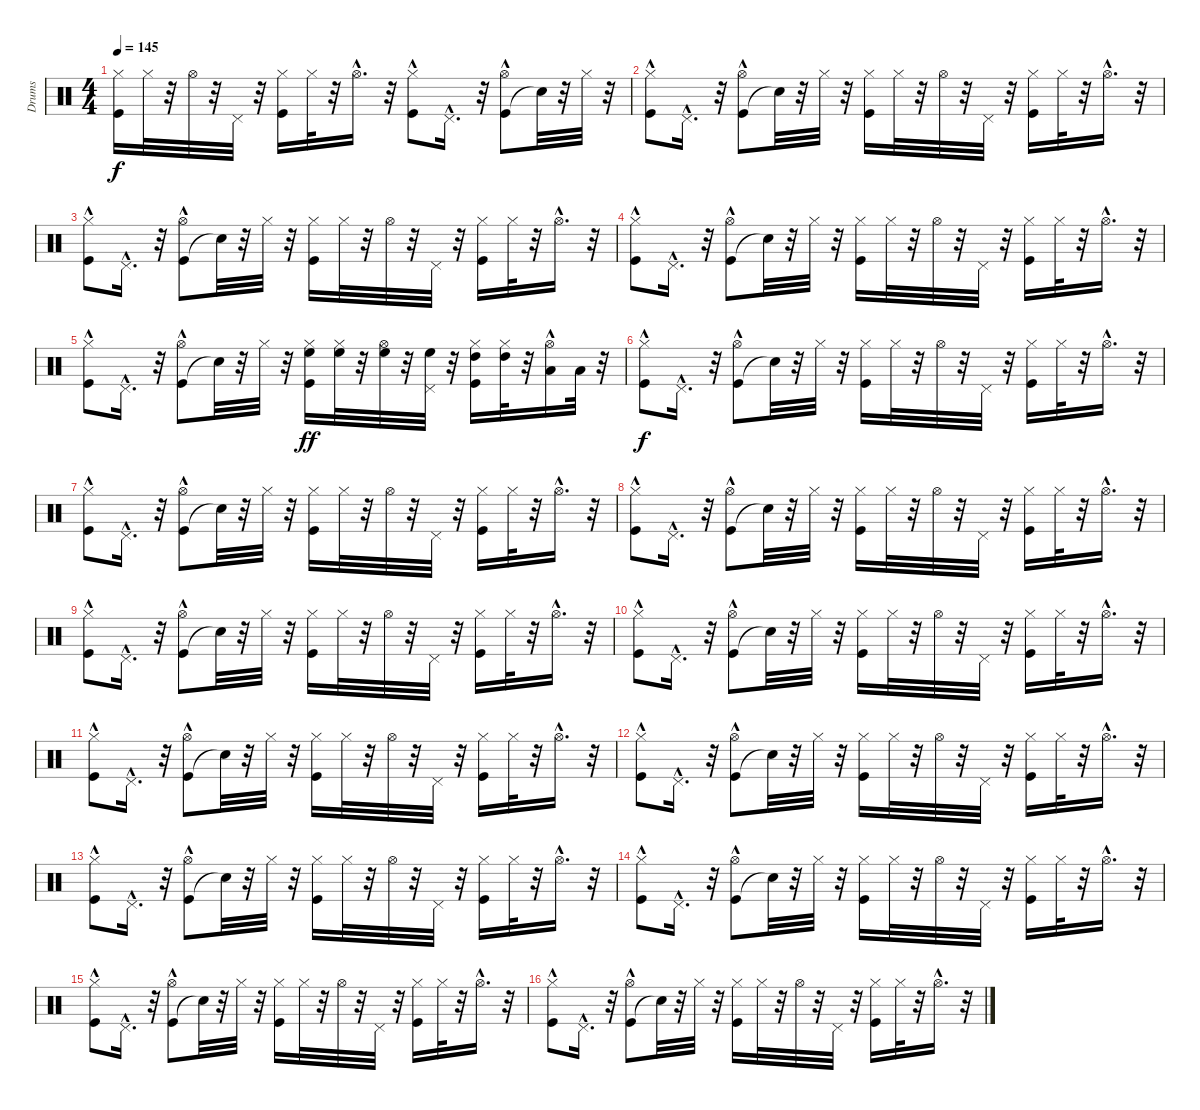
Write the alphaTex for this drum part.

\track ("Drums" "Drums") {instrument percussion}
\staff {score}
\articulation defaults
\ts (4 4)
\tempo 145
\clef neutral
\ks c
("Kick (hit)" "Hi-Hat (closed)").16{dy f} "Hi-Hat (closed)".32 r.32 "Hi-Hat (open)".32 r.32 "Pedal Hi-Hat (hit)".32 r.32 ("Kick (hit)" "Hi-Hat (closed)").16 "Hi-Hat (closed)".32 r.32 "Hi-Hat (open)"{hac}.16{d} r.32 ("Kick (hit)" "Hi-Hat (closed)"{hac}).8 "Pedal Hi-Hat (hit)"{hac}.16{d} r.32 ("Kick (hit)" "Hi-Hat (open)"{hac}).8 "Snare (hit)"{t}.32 r.32 "Hi-Hat (closed)".32 r.32 |
("Kick (hit)" "Hi-Hat (closed)"{hac}).8 "Pedal Hi-Hat (hit)"{hac}.16{d} r.32 ("Kick (hit)" "Hi-Hat (open)"{hac}).8 "Snare (hit)"{t}.32 r.32 "Hi-Hat (closed)".32 r.32 ("Kick (hit)" "Hi-Hat (closed)").16 "Hi-Hat (closed)".32 r.32 "Hi-Hat (open)".32 r.32 "Pedal Hi-Hat (hit)".32 r.32 ("Kick (hit)" "Hi-Hat (closed)").16 "Hi-Hat (closed)".32 r.32 "Hi-Hat (open)"{hac}.16{d} r.32 |
("Kick (hit)" "Hi-Hat (closed)"{hac}).8 "Pedal Hi-Hat (hit)"{hac}.16{d} r.32 ("Kick (hit)" "Hi-Hat (open)"{hac}).8 "Snare (hit)"{t}.32 r.32 "Hi-Hat (closed)".32 r.32 ("Kick (hit)" "Hi-Hat (closed)").16 "Hi-Hat (closed)".32 r.32 "Hi-Hat (open)".32 r.32 "Pedal Hi-Hat (hit)".32 r.32 ("Kick (hit)" "Hi-Hat (closed)").16 "Hi-Hat (closed)".32 r.32 "Hi-Hat (open)"{hac}.16{d} r.32 |
("Kick (hit)" "Hi-Hat (closed)"{hac}).8 "Pedal Hi-Hat (hit)"{hac}.16{d} r.32 ("Kick (hit)" "Hi-Hat (open)"{hac}).8 "Snare (hit)"{t}.32 r.32 "Hi-Hat (closed)".32 r.32 ("Kick (hit)" "Hi-Hat (closed)").16 "Hi-Hat (closed)".32 r.32 "Hi-Hat (open)".32 r.32 "Pedal Hi-Hat (hit)".32 r.32 ("Kick (hit)" "Hi-Hat (closed)").16 "Hi-Hat (closed)".32 r.32 "Hi-Hat (open)"{hac}.16{d} r.32 |
("Kick (hit)" "Hi-Hat (closed)"{hac}).8 "Pedal Hi-Hat (hit)"{hac}.16{d} r.32 ("Kick (hit)" "Hi-Hat (open)"{hac}).8 "Snare (hit)"{t}.32 r.32 "Hi-Hat (closed)".32 r.32 ("High Floor Tom (hit)" "Kick (hit)" "Hi-Hat (closed)").16{dy ff} ("High Floor Tom (hit)" "Hi-Hat (closed)").32 r.32 ("High Floor Tom (hit)" "Hi-Hat (open)").32 r.32 ("High Floor Tom (hit)" "Pedal Hi-Hat (hit)").32 r.32 ("High Tom (hit)" "Kick (hit)" "Hi-Hat (closed)").16 ("High Tom (hit)" "Hi-Hat (closed)").32 r.32 ("Low Tom (hit)" "Hi-Hat (open)"{hac}).16 "Low Tom (hit)".32 r.32 |
("Kick (hit)" "Hi-Hat (closed)"{hac}).8{dy f} "Pedal Hi-Hat (hit)"{hac}.16{d} r.32 ("Kick (hit)" "Hi-Hat (open)"{hac}).8 "Snare (hit)"{t}.32 r.32 "Hi-Hat (closed)".32 r.32 ("Kick (hit)" "Hi-Hat (closed)").16 "Hi-Hat (closed)".32 r.32 "Hi-Hat (open)".32 r.32 "Pedal Hi-Hat (hit)".32 r.32 ("Kick (hit)" "Hi-Hat (closed)").16 "Hi-Hat (closed)".32 r.32 "Hi-Hat (open)"{hac}.16{d} r.32 |
("Kick (hit)" "Hi-Hat (closed)"{hac}).8 "Pedal Hi-Hat (hit)"{hac}.16{d} r.32 ("Kick (hit)" "Hi-Hat (open)"{hac}).8 "Snare (hit)"{t}.32 r.32 "Hi-Hat (closed)".32 r.32 ("Kick (hit)" "Hi-Hat (closed)").16 "Hi-Hat (closed)".32 r.32 "Hi-Hat (open)".32 r.32 "Pedal Hi-Hat (hit)".32 r.32 ("Kick (hit)" "Hi-Hat (closed)").16 "Hi-Hat (closed)".32 r.32 "Hi-Hat (open)"{hac}.16{d} r.32 |
("Kick (hit)" "Hi-Hat (closed)"{hac}).8 "Pedal Hi-Hat (hit)"{hac}.16{d} r.32 ("Kick (hit)" "Hi-Hat (open)"{hac}).8 "Snare (hit)"{t}.32 r.32 "Hi-Hat (closed)".32 r.32 ("Kick (hit)" "Hi-Hat (closed)").16 "Hi-Hat (closed)".32 r.32 "Hi-Hat (open)".32 r.32 "Pedal Hi-Hat (hit)".32 r.32 ("Kick (hit)" "Hi-Hat (closed)").16 "Hi-Hat (closed)".32 r.32 "Hi-Hat (open)"{hac}.16{d} r.32 |
("Kick (hit)" "Hi-Hat (closed)"{hac}).8 "Pedal Hi-Hat (hit)"{hac}.16{d} r.32 ("Kick (hit)" "Hi-Hat (open)"{hac}).8 "Snare (hit)"{t}.32 r.32 "Hi-Hat (closed)".32 r.32 ("Kick (hit)" "Hi-Hat (closed)").16 "Hi-Hat (closed)".32 r.32 "Hi-Hat (open)".32 r.32 "Pedal Hi-Hat (hit)".32 r.32 ("Kick (hit)" "Hi-Hat (closed)").16 "Hi-Hat (closed)".32 r.32 "Hi-Hat (open)"{hac}.16{d} r.32 |
("Kick (hit)" "Hi-Hat (closed)"{hac}).8 "Pedal Hi-Hat (hit)"{hac}.16{d} r.32 ("Kick (hit)" "Hi-Hat (open)"{hac}).8 "Snare (hit)"{t}.32 r.32 "Hi-Hat (closed)".32 r.32 ("Kick (hit)" "Hi-Hat (closed)").16 "Hi-Hat (closed)".32 r.32 "Hi-Hat (open)".32 r.32 "Pedal Hi-Hat (hit)".32 r.32 ("Kick (hit)" "Hi-Hat (closed)").16 "Hi-Hat (closed)".32 r.32 "Hi-Hat (open)"{hac}.16{d} r.32 |
("Kick (hit)" "Hi-Hat (closed)"{hac}).8 "Pedal Hi-Hat (hit)"{hac}.16{d} r.32 ("Kick (hit)" "Hi-Hat (open)"{hac}).8 "Snare (hit)"{t}.32 r.32 "Hi-Hat (closed)".32 r.32 ("Kick (hit)" "Hi-Hat (closed)").16 "Hi-Hat (closed)".32 r.32 "Hi-Hat (open)".32 r.32 "Pedal Hi-Hat (hit)".32 r.32 ("Kick (hit)" "Hi-Hat (closed)").16 "Hi-Hat (closed)".32 r.32 "Hi-Hat (open)"{hac}.16{d} r.32 |
("Kick (hit)" "Hi-Hat (closed)"{hac}).8 "Pedal Hi-Hat (hit)"{hac}.16{d} r.32 ("Kick (hit)" "Hi-Hat (open)"{hac}).8 "Snare (hit)"{t}.32 r.32 "Hi-Hat (closed)".32 r.32 ("Kick (hit)" "Hi-Hat (closed)").16 "Hi-Hat (closed)".32 r.32 "Hi-Hat (open)".32 r.32 "Pedal Hi-Hat (hit)".32 r.32 ("Kick (hit)" "Hi-Hat (closed)").16 "Hi-Hat (closed)".32 r.32 "Hi-Hat (open)"{hac}.16{d} r.32 |
("Kick (hit)" "Hi-Hat (closed)"{hac}).8 "Pedal Hi-Hat (hit)"{hac}.16{d} r.32 ("Kick (hit)" "Hi-Hat (open)"{hac}).8 "Snare (hit)"{t}.32 r.32 "Hi-Hat (closed)".32 r.32 ("Kick (hit)" "Hi-Hat (closed)").16 "Hi-Hat (closed)".32 r.32 "Hi-Hat (open)".32 r.32 "Pedal Hi-Hat (hit)".32 r.32 ("Kick (hit)" "Hi-Hat (closed)").16 "Hi-Hat (closed)".32 r.32 "Hi-Hat (open)"{hac}.16{d} r.32 |
("Kick (hit)" "Hi-Hat (closed)"{hac}).8 "Pedal Hi-Hat (hit)"{hac}.16{d} r.32 ("Kick (hit)" "Hi-Hat (open)"{hac}).8 "Snare (hit)"{t}.32 r.32 "Hi-Hat (closed)".32 r.32 ("Kick (hit)" "Hi-Hat (closed)").16 "Hi-Hat (closed)".32 r.32 "Hi-Hat (open)".32 r.32 "Pedal Hi-Hat (hit)".32 r.32 ("Kick (hit)" "Hi-Hat (closed)").16 "Hi-Hat (closed)".32 r.32 "Hi-Hat (open)"{hac}.16{d} r.32 |
("Kick (hit)" "Hi-Hat (closed)"{hac}).8 "Pedal Hi-Hat (hit)"{hac}.16{d} r.32 ("Kick (hit)" "Hi-Hat (open)"{hac}).8 "Snare (hit)"{t}.32 r.32 "Hi-Hat (closed)".32 r.32 ("Kick (hit)" "Hi-Hat (closed)").16 "Hi-Hat (closed)".32 r.32 "Hi-Hat (open)".32 r.32 "Pedal Hi-Hat (hit)".32 r.32 ("Kick (hit)" "Hi-Hat (closed)").16 "Hi-Hat (closed)".32 r.32 "Hi-Hat (open)"{hac}.16{d} r.32 |
("Kick (hit)" "Hi-Hat (closed)"{hac}).8 "Pedal Hi-Hat (hit)"{hac}.16{d} r.32 ("Kick (hit)" "Hi-Hat (open)"{hac}).8 "Snare (hit)"{t}.32 r.32 "Hi-Hat (closed)".32 r.32 ("Kick (hit)" "Hi-Hat (closed)").16 "Hi-Hat (closed)".32 r.32 "Hi-Hat (open)".32 r.32 "Pedal Hi-Hat (hit)".32 r.32 ("Kick (hit)" "Hi-Hat (closed)").16 "Hi-Hat (closed)".32 r.32 "Hi-Hat (open)"{hac}.16{d} r.32
